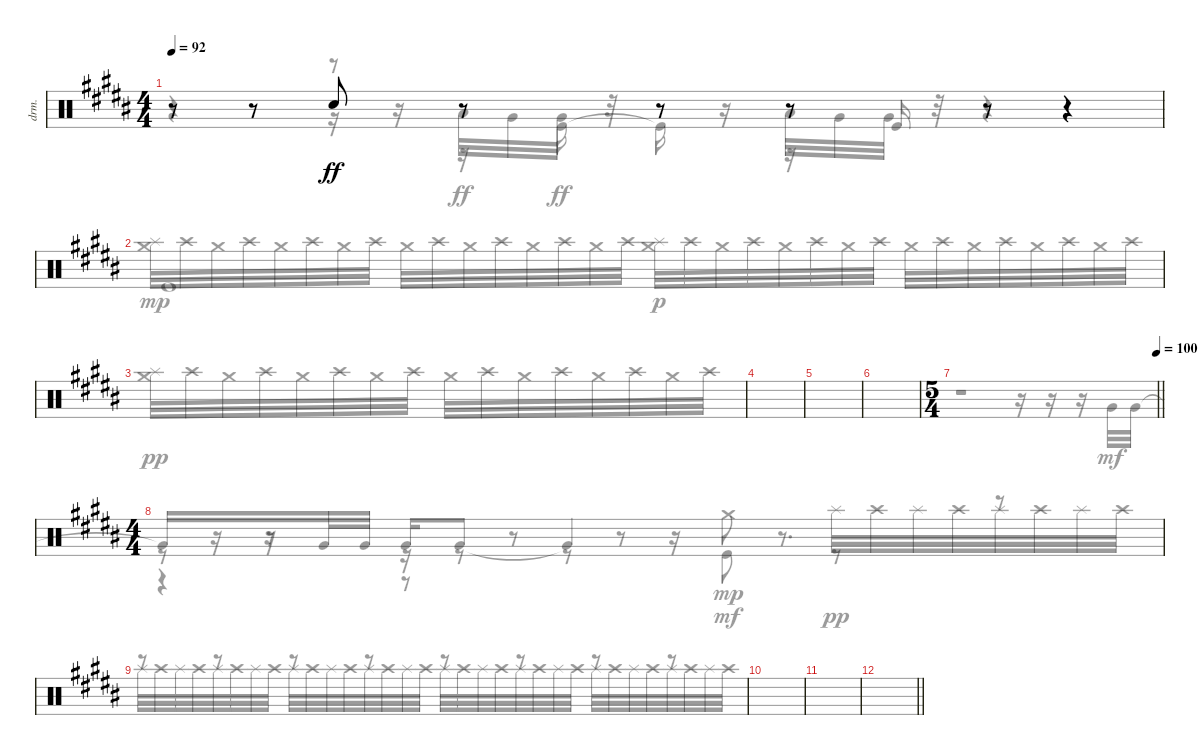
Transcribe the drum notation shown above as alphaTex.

\bracketExtendMode groupsimilarinstruments
\otherSystemsTrackNameOrientation horizontal
\track ("Drumkit" "drm.") {instrument percussion}
\staff {score}
\articulation defaults
\voice
\ts (4 4)
\tempo 92
\clef neutral
\ks b
r.8{dy ff beam Up} r.8{beam Up} "Snare (hit) 2"{acc forcenatural}.8{beam Up} r.8{beam Up} r.8{beam Up} r.8{beam Up} r.8{beam Up} r.4{beam Up} |
|
|
|
|
|
\ts (5 4)
\beaming (8 6 4)
\tempo (100 1)
\barLineRight lightlight
|
\ts (4 4)
\beaming (8 2 2 2 2)
|
|
|
|
\barLineRight lightlight
|
|
|
|
\voice
\clef neutral
\ottava regular
\simile none
\ks b
r.4{dy ff beam Down} r.8{beam Down} "Low Tom (hit)"{acc forcenatural}.32{beam Down} "Very Low Tom (hit)"{acc forcenatural}.32{beam Down} "Very Low Tom (hit)"{acc forcenatural}.32{beam Down} r.32{beam Down} r.8{beam Down} "Low Tom (hit)"{acc forcenatural}.32{beam Down} "Very Low Tom (hit)"{acc forcenatural}.32{beam Down} "Very Low Tom (hit)"{acc forcenatural}.32{beam Down} r.32{beam Down} r.4{beam Down} |
|
|
|
|
|
\barLineRight lightlight
r.1{beam Down} r.16{beam Down} r.16{beam Down} r.16{beam Down} "Very Low Tom (hit)"{acc forcenatural}.32{dy mf beam Up} "Very Low Tom (hit)"{acc forcenatural}.32{beam Up} |
"Very Low Tom (hit)"{t acc forcenatural}.16{beam Up} r.16{beam Up} r.16{beam Up} "Very Low Tom (hit)"{acc forcenatural}.32{beam Up} "Very Low Tom (hit)"{acc forcenatural}.32{beam Up} "Very Low Tom (hit)"{acc forcenatural}.16{beam Up} "Very Low Tom (hit)"{acc forcenatural}.8{beam Up} "Very Low Tom (hit)"{t acc forcenatural}.4{beam Up} r.8{d beam Up} r.8{beam Up} |
r.8{beam Up} r.8{beam Up} r.8{beam Up} r.8{beam Up} r.8{beam Up} r.8{beam Up} r.8{beam Up} r.8{beam Up} |
|
|
\barLineRight lightlight
|
|
|
|
\voice
\clef neutral
\ottava regular
\simile none
\ks b
r.4{dy ff beam Down} r.16{beam Down} r.16{beam Down} r.16{beam Down} "Kick (hit)"{acc forcenatural}.16{beam Up} "Kick (hit)"{t acc forcenatural}.16{beam Down beam split} r.16{beam Down beam split} r.16{beam Down beam split} "Kick (hit)"{acc forcenatural}.16{beam Up} r.4{beam Down} |
"Kick (hit)"{acc forcenatural}.1{beam Up} |
|
|
|
|
\barLineRight lightlight
|
r.8{beam Down} r.8{beam Down} r.16{beam Down} r.8{beam Down} r.8{beam Down} r.16{beam Down} "Kick (hit)"{acc forcenatural}.8{dy mp beam Down} r.8{beam Down} r.8{beam Down} |
r.8{beam Down} r.8{beam Down} r.8{beam Down} r.8{beam Down} r.8{beam Down} r.8{beam Down} r.8{beam Down} r.8{beam Down} |
|
|
\barLineRight lightlight
|
|
|
|
\voice
\clef neutral
\ottava regular
\simile none
\ks b
|
("Crash medium (hit)"{acc forcenatural} "Splash (hit)"{acc forcenatural}).32{beam Down} "Crash high (hit)"{acc forcenatural}.32{beam Down} "Crash medium (hit)"{acc forcenatural}.32{beam Down} "Crash high (hit)"{acc forcenatural}.32{beam Down} "Crash medium (hit)"{acc forcenatural}.32{beam Down} "Crash high (hit)"{acc forcenatural}.32{beam Down} "Crash medium (hit)"{acc forcenatural}.32{beam Down} "Crash high (hit)"{acc forcenatural}.32{beam Down} "Crash medium (hit)"{acc forcenatural}.32{beam Down} "Crash high (hit)"{acc forcenatural}.32{beam Down} "Crash medium (hit)"{acc forcenatural}.32{beam Down} "Crash high (hit)"{acc forcenatural}.32{beam Down} "Crash medium (hit)"{acc forcenatural}.32{beam Down} "Crash high (hit)"{acc forcenatural}.32{beam Down} "Crash medium (hit)"{acc forcenatural}.32{beam Down} "Crash high (hit)"{acc forcenatural}.32{beam Down} ("Crash medium (hit)"{acc forcenatural} "Splash (hit)"{acc forcenatural}).32{dy p beam Down} "Crash high (hit)"{acc forcenatural}.32{beam Down} "Crash medium (hit)"{acc forcenatural}.32{beam Down} "Crash high (hit)"{acc forcenatural}.32{beam Down} "Crash medium (hit)"{acc forcenatural}.32{beam Down} "Crash high (hit)"{acc forcenatural}.32{beam Down} "Crash medium (hit)"{acc forcenatural}.32{beam Down} "Crash high (hit)"{acc forcenatural}.32{beam Down} "Crash medium (hit)"{acc forcenatural}.32{beam Down} "Crash high (hit)"{acc forcenatural}.32{beam Down} "Crash medium (hit)"{acc forcenatural}.32{beam Down} "Crash high (hit)"{acc forcenatural}.32{beam Down} "Crash medium (hit)"{acc forcenatural}.32{beam Down} "Crash high (hit)"{acc forcenatural}.32{beam Down} "Crash medium (hit)"{acc forcenatural}.32{beam Down} "Crash high (hit)"{acc forcenatural}.32{beam Down} |
("Crash medium (hit)"{acc forcenatural} "Splash (hit)"{acc forcenatural}).32{dy pp beam Down} "Crash high (hit)"{acc forcenatural}.32{beam Down} "Crash medium (hit)"{acc forcenatural}.32{beam Down} "Crash high (hit)"{acc forcenatural}.32{beam Down} "Crash medium (hit)"{acc forcenatural}.32{beam Down} "Crash high (hit)"{acc forcenatural}.32{beam Down} "Crash medium (hit)"{acc forcenatural}.32{beam Down} "Crash high (hit)"{acc forcenatural}.32{beam Down} "Crash medium (hit)"{acc forcenatural}.32{beam Down} "Crash high (hit)"{acc forcenatural}.32{beam Down} "Crash medium (hit)"{acc forcenatural}.32{beam Down} "Crash high (hit)"{acc forcenatural}.32{beam Down} "Crash medium (hit)"{acc forcenatural}.32{beam Down} "Crash high (hit)"{acc forcenatural}.32{beam Down} "Crash medium (hit)"{acc forcenatural}.32{beam Down} "Crash high (hit)"{acc forcenatural}.32{beam Down} |
|
|
|
\barLineRight lightlight
|
r.4{beam Down} r.8{beam Down} r.8{beam Down} r.8{beam Down} "Crash medium (hit)"{acc forcenatural}.8{dy mf beam Down} "Splash (hit)"{acc forcenatural}.32{dy pp beam Down} "Crash high (hit)"{acc forcenatural}.32{beam Down} "Splash (hit)"{acc forcenatural}.32{beam Down} "Crash high (hit)"{acc forcenatural}.32{beam Down} "Splash (hit)"{acc forcenatural}.32{beam Down} "Crash high (hit)"{acc forcenatural}.32{beam Down} "Splash (hit)"{acc forcenatural}.32{beam Down} "Crash high (hit)"{acc forcenatural}.32{beam Down} |
"Splash (hit)"{acc forcenatural}.32{beam Down} "Crash high (hit)"{acc forcenatural}.32{beam Down} "Splash (hit)"{acc forcenatural}.32{beam Down} "Crash high (hit)"{acc forcenatural}.32{beam Down} "Splash (hit)"{acc forcenatural}.32{beam Down} "Crash high (hit)"{acc forcenatural}.32{beam Down} "Splash (hit)"{acc forcenatural}.32{beam Down} "Crash high (hit)"{acc forcenatural}.32{beam Down} "Splash (hit)"{acc forcenatural}.32{beam Down} "Crash high (hit)"{acc forcenatural}.32{beam Down} "Splash (hit)"{acc forcenatural}.32{beam Down} "Crash high (hit)"{acc forcenatural}.32{beam Down} "Splash (hit)"{acc forcenatural}.32{beam Down} "Crash high (hit)"{acc forcenatural}.32{beam Down} "Splash (hit)"{acc forcenatural}.32{beam Down} "Crash high (hit)"{acc forcenatural}.32{beam Down} "Splash (hit)"{acc forcenatural}.32{beam Down} "Crash high (hit)"{acc forcenatural}.32{beam Down} "Splash (hit)"{acc forcenatural}.32{beam Down} "Crash high (hit)"{acc forcenatural}.32{beam Down} "Splash (hit)"{acc forcenatural}.32{beam Down} "Crash high (hit)"{acc forcenatural}.32{beam Down} "Splash (hit)"{acc forcenatural}.32{beam Down} "Crash high (hit)"{acc forcenatural}.32{beam Down} "Splash (hit)"{acc forcenatural}.32{beam Down} "Crash high (hit)"{acc forcenatural}.32{beam Down} "Splash (hit)"{acc forcenatural}.32{beam Down} "Crash high (hit)"{acc forcenatural}.32{beam Down} "Splash (hit)"{acc forcenatural}.32{beam Down} "Crash high (hit)"{acc forcenatural}.32{beam Down} "Splash (hit)"{acc forcenatural}.32{beam Down} "Crash high (hit)"{acc forcenatural}.32{beam Down} |
|
|
\barLineRight lightlight
|
|
|
|
